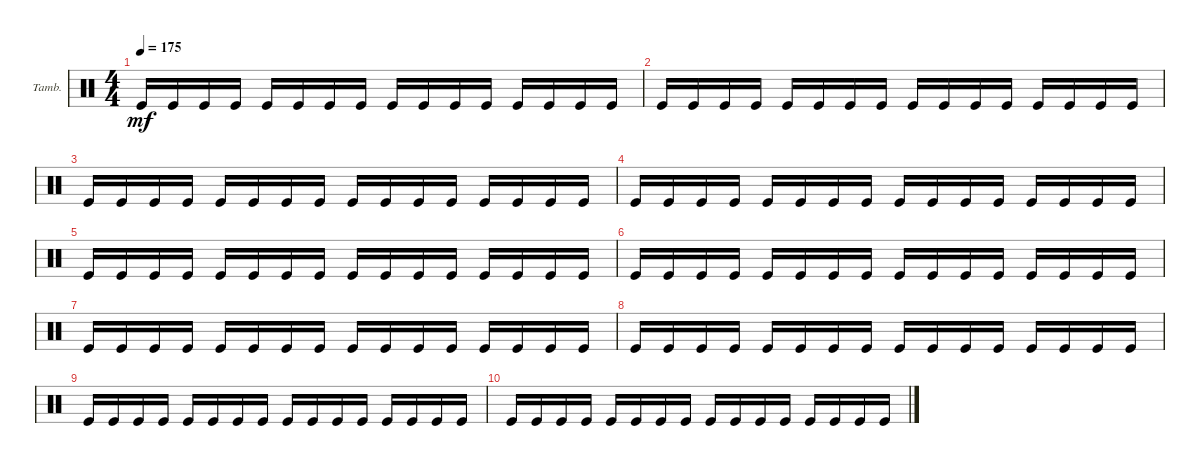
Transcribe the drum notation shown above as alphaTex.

\defaultSystemsLayout 4
\bracketExtendMode groupsimilarinstruments
\firstSystemTrackNameOrientation horizontal
\otherSystemsTrackNameOrientation horizontal
\track ("Tambourine" "Tamb.") {instrument percussion}
\staff {score}
\articulation defaults
\ts (4 4)
\tempo 175
\clef neutral
\scale
0.333333
\ks c "Kick (hit)".16{dy mf} "Kick (hit)".16 "Kick (hit)".16 "Kick (hit)".16 "Kick (hit)".16 "Kick (hit)".16 "Kick (hit)".16 "Kick (hit)".16 "Kick (hit)".16 "Kick (hit)".16 "Kick (hit)".16 "Kick (hit)".16 "Kick (hit)".16 "Kick (hit)".16 "Kick (hit)".16 "Kick (hit)".16
|
\scale
0.333333 "Kick (hit)".16 "Kick (hit)".16 "Kick (hit)".16 "Kick (hit)".16 "Kick (hit)".16 "Kick (hit)".16 "Kick (hit)".16 "Kick (hit)".16 "Kick (hit)".16 "Kick (hit)".16 "Kick (hit)".16 "Kick (hit)".16 "Kick (hit)".16 "Kick (hit)".16 "Kick (hit)".16 "Kick (hit)".16 |
\scale
0.333333 "Kick (hit)".16 "Kick (hit)".16 "Kick (hit)".16 "Kick (hit)".16 "Kick (hit)".16 "Kick (hit)".16 "Kick (hit)".16 "Kick (hit)".16 "Kick (hit)".16 "Kick (hit)".16 "Kick (hit)".16 "Kick (hit)".16 "Kick (hit)".16 "Kick (hit)".16 "Kick (hit)".16 "Kick (hit)".16 |
\scale
0.333333 "Kick (hit)".16 "Kick (hit)".16 "Kick (hit)".16 "Kick (hit)".16 "Kick (hit)".16 "Kick (hit)".16 "Kick (hit)".16 "Kick (hit)".16 "Kick (hit)".16 "Kick (hit)".16 "Kick (hit)".16 "Kick (hit)".16 "Kick (hit)".16 "Kick (hit)".16 "Kick (hit)".16 "Kick (hit)".16 |
\scale
0.333333 "Kick (hit)".16 "Kick (hit)".16 "Kick (hit)".16 "Kick (hit)".16 "Kick (hit)".16 "Kick (hit)".16 "Kick (hit)".16 "Kick (hit)".16 "Kick (hit)".16 "Kick (hit)".16 "Kick (hit)".16 "Kick (hit)".16 "Kick (hit)".16 "Kick (hit)".16 "Kick (hit)".16 "Kick (hit)".16 |
\scale
0.333333 "Kick (hit)".16 "Kick (hit)".16 "Kick (hit)".16 "Kick (hit)".16 "Kick (hit)".16 "Kick (hit)".16 "Kick (hit)".16 "Kick (hit)".16 "Kick (hit)".16 "Kick (hit)".16 "Kick (hit)".16 "Kick (hit)".16 "Kick (hit)".16 "Kick (hit)".16 "Kick (hit)".16 "Kick (hit)".16 |
\scale
0.333333 "Kick (hit)".16 "Kick (hit)".16 "Kick (hit)".16 "Kick (hit)".16 "Kick (hit)".16 "Kick (hit)".16 "Kick (hit)".16 "Kick (hit)".16 "Kick (hit)".16 "Kick (hit)".16 "Kick (hit)".16 "Kick (hit)".16 "Kick (hit)".16 "Kick (hit)".16 "Kick (hit)".16 "Kick (hit)".16 |
\scale
0.333333 "Kick (hit)".16 "Kick (hit)".16 "Kick (hit)".16 "Kick (hit)".16 "Kick (hit)".16 "Kick (hit)".16 "Kick (hit)".16 "Kick (hit)".16 "Kick (hit)".16 "Kick (hit)".16 "Kick (hit)".16 "Kick (hit)".16 "Kick (hit)".16 "Kick (hit)".16 "Kick (hit)".16 "Kick (hit)".16 |
\scale
0.333333 "Kick (hit)".16 "Kick (hit)".16 "Kick (hit)".16 "Kick (hit)".16 "Kick (hit)".16 "Kick (hit)".16 "Kick (hit)".16 "Kick (hit)".16 "Kick (hit)".16 "Kick (hit)".16 "Kick (hit)".16 "Kick (hit)".16 "Kick (hit)".16 "Kick (hit)".16 "Kick (hit)".16 "Kick (hit)".16 |
\scale
0.333333 "Kick (hit)".16 "Kick (hit)".16 "Kick (hit)".16 "Kick (hit)".16 "Kick (hit)".16 "Kick (hit)".16 "Kick (hit)".16 "Kick (hit)".16 "Kick (hit)".16 "Kick (hit)".16 "Kick (hit)".16 "Kick (hit)".16 "Kick (hit)".16 "Kick (hit)".16 "Kick (hit)".16 "Kick (hit)".16 |
\scale
0.333333 |
\scale
0.333333 |
\scale
0.333333 |
\scale
0.333333 |
\scale
0.333333 |
\scale
0.333333
